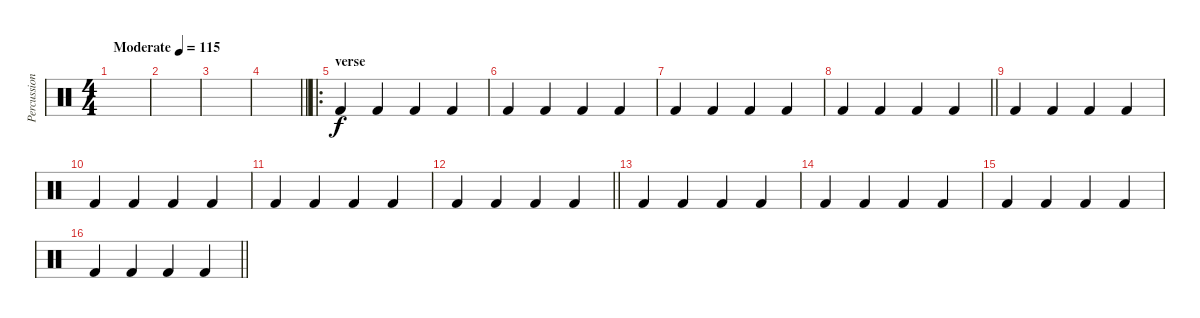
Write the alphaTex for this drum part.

\track ("Percussion" "Percussion") {instrument percussion}
\staff {score}
\articulation defaults
\ts (4 4)
\tempo (115 "Moderate")
\clef neutral
\ks c
|
|
|
\barLineRight lightlight
|
\ro
\section ("" "verse")
"Kick (hit) 2".4 "Kick (hit) 2".4 "Kick (hit) 2".4 "Kick (hit) 2".4 |
"Kick (hit) 2".4 "Kick (hit) 2".4 "Kick (hit) 2".4 "Kick (hit) 2".4 |
"Kick (hit) 2".4 "Kick (hit) 2".4 "Kick (hit) 2".4 "Kick (hit) 2".4 |
\barLineRight lightlight "Kick (hit) 2".4 "Kick (hit) 2".4 "Kick (hit) 2".4 "Kick (hit) 2".4
|
"Kick (hit) 2".4 "Kick (hit) 2".4 "Kick (hit) 2".4 "Kick (hit) 2".4 |
"Kick (hit) 2".4 "Kick (hit) 2".4 "Kick (hit) 2".4 "Kick (hit) 2".4 |
"Kick (hit) 2".4 "Kick (hit) 2".4 "Kick (hit) 2".4 "Kick (hit) 2".4 |
\barLineRight lightlight "Kick (hit) 2".4 "Kick (hit) 2".4 "Kick (hit) 2".4 "Kick (hit) 2".4
|
"Kick (hit) 2".4 "Kick (hit) 2".4 "Kick (hit) 2".4 "Kick (hit) 2".4 |
"Kick (hit) 2".4 "Kick (hit) 2".4 "Kick (hit) 2".4 "Kick (hit) 2".4 |
"Kick (hit) 2".4 "Kick (hit) 2".4 "Kick (hit) 2".4 "Kick (hit) 2".4 |
\barLineRight lightlight "Kick (hit) 2".4 "Kick (hit) 2".4 "Kick (hit) 2".4 "Kick (hit) 2".4
